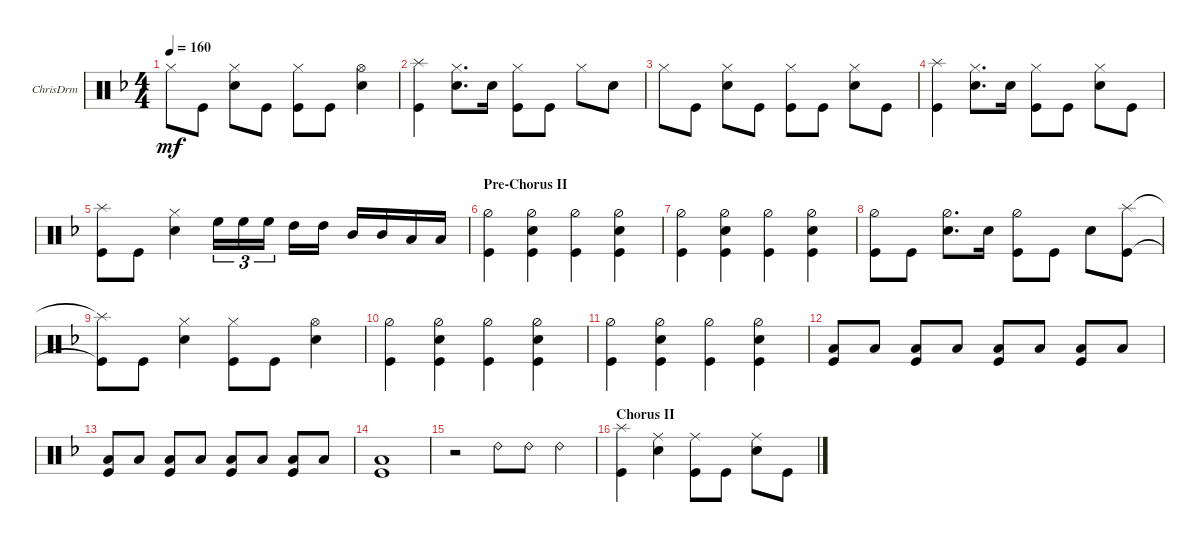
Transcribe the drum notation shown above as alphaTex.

\defaultSystemsLayout 4
\bracketExtendMode groupsimilarinstruments
\firstSystemTrackNameOrientation horizontal
\otherSystemsTrackNameOrientation horizontal
\track ("Drumkit" "ChrisDrm") {instrument percussion}
\staff {score}
\articulation defaults
\ts (4 4)
\tempo 160
\clef neutral
\ks dminor "Hi-Hat (closed)".8{dy mf} "Kick (hit)".8
("Snare (hit) 2" "Hi-Hat (closed)").8 "Kick (hit)".8 ("Kick (hit)" "Hi-Hat (closed)").8 "Kick (hit)".8 ("Snare (hit) 2" "Hi-Hat (open)").4 |
("Kick (hit)" "Splash (hit)").4 ("Snare (hit) 2" "Hi-Hat (closed)").8{d} "Snare (hit) 2".16 ("Kick (hit)" "Hi-Hat (closed)").8 "Kick (hit)".8 "Hi-Hat (closed)".8 "Snare (hit) 2".8 |
"Hi-Hat (closed)".8 "Kick (hit)".8 ("Snare (hit) 2" "Hi-Hat (closed)").8 "Kick (hit)".8 ("Kick (hit)" "Hi-Hat (closed)").8 "Kick (hit)".8 ("Snare (hit) 2" "Hi-Hat (closed)").8 "Kick (hit)".8 |
("Kick (hit)" "Splash (hit)").4 ("Snare (hit) 2" "Hi-Hat (closed)").8{d} "Snare (hit) 2".16 ("Kick (hit)" "Hi-Hat (closed)").8 "Kick (hit)".8 ("Hi-Hat (closed)" "Snare (hit) 2").8 "Kick (hit)".8 |
("Kick (hit)" "Splash (hit)").8 "Kick (hit)".8 ("Snare (hit) 2" "Hi-Hat (closed)").4 "High Floor Tom (hit)".16{tu (3 2)} "High Floor Tom (hit)".16{tu (3 2)} "High Floor Tom (hit)".16{tu (3 2)} "High Tom (hit)".16 "High Tom (hit)".16 "Mid Tom (hit)".16 "Mid Tom (hit)".16 "Low Tom (hit)".16 "Low Tom (hit)".16 |
\section ("" "Pre-Chorus II")
("Hi-Hat (half)" "Kick (hit)").4 ("Hi-Hat (half)" "Snare (hit) 2" "Kick (hit)").4 ("Hi-Hat (half)" "Kick (hit)").4 ("Hi-Hat (half)" "Snare (hit) 2" "Kick (hit)").4 |
("Hi-Hat (half)" "Kick (hit)").4 ("Hi-Hat (half)" "Kick (hit)" "Snare (hit) 2").4 ("Hi-Hat (half)" "Kick (hit)").4 ("Hi-Hat (half)" "Kick (hit)" "Snare (hit) 2").4 |
("Kick (hit)" "Hi-Hat (half)").8 "Kick (hit)".8 ("Snare (hit) 2" "Hi-Hat (half)").8{d} "Snare (hit) 2".16 ("Kick (hit)" "Hi-Hat (half)").8 "Kick (hit)".8 "Snare (hit) 2".8 ("Kick (hit)" "Splash (hit)").8 |
("Kick (hit)"{t} "Splash (hit)"{t}).8 "Kick (hit)".8 ("Snare (hit) 2" "Hi-Hat (closed)").4 ("Kick (hit)" "Hi-Hat (closed)").8 "Kick (hit)".8 ("Snare (hit) 2" "Hi-Hat (open)").4 |
("Hi-Hat (half)" "Kick (hit)").4 ("Hi-Hat (half)" "Snare (hit) 2" "Kick (hit)").4 ("Hi-Hat (half)" "Kick (hit)").4 ("Hi-Hat (half)" "Snare (hit) 2" "Kick (hit)").4 |
("Hi-Hat (half)" "Kick (hit)").4 ("Hi-Hat (half)" "Kick (hit)" "Snare (hit) 2").4 ("Hi-Hat (half)" "Kick (hit)").4 ("Hi-Hat (half)" "Kick (hit)" "Snare (hit) 2").4 |
("Kick (hit)" "Low Tom (hit)").8 "Low Tom (hit)".8 ("Low Tom (hit)" "Kick (hit)").8 "Low Tom (hit)".8 ("Low Tom (hit)" "Kick (hit)").8 "Low Tom (hit)".8 ("Low Tom (hit)" "Kick (hit)").8 "Low Tom (hit)".8 |
("Kick (hit)" "Low Tom (hit)").8 "Low Tom (hit)".8 ("Low Tom (hit)" "Kick (hit)").8 "Low Tom (hit)".8 ("Low Tom (hit)" "Kick (hit)").8 "Low Tom (hit)".8 ("Low Tom (hit)" "Kick (hit)").8 "Low Tom (hit)".8 |
("Kick (hit)" "Low Tom (hit)").1 |
r.2 "Ride (bell) 2".8 "Ride (bell) 2".8 "Ride (bell) 2".4 |
\section ("" "Chorus II")
("Splash (hit)" "Kick (hit)").4 ("Snare (hit) 2" "Ride (middle)").4 ("Kick (hit)" "Ride (middle)").8 "Kick (hit)".8 ("Snare (hit) 2" "Ride (middle)").8 "Kick (hit)".8
